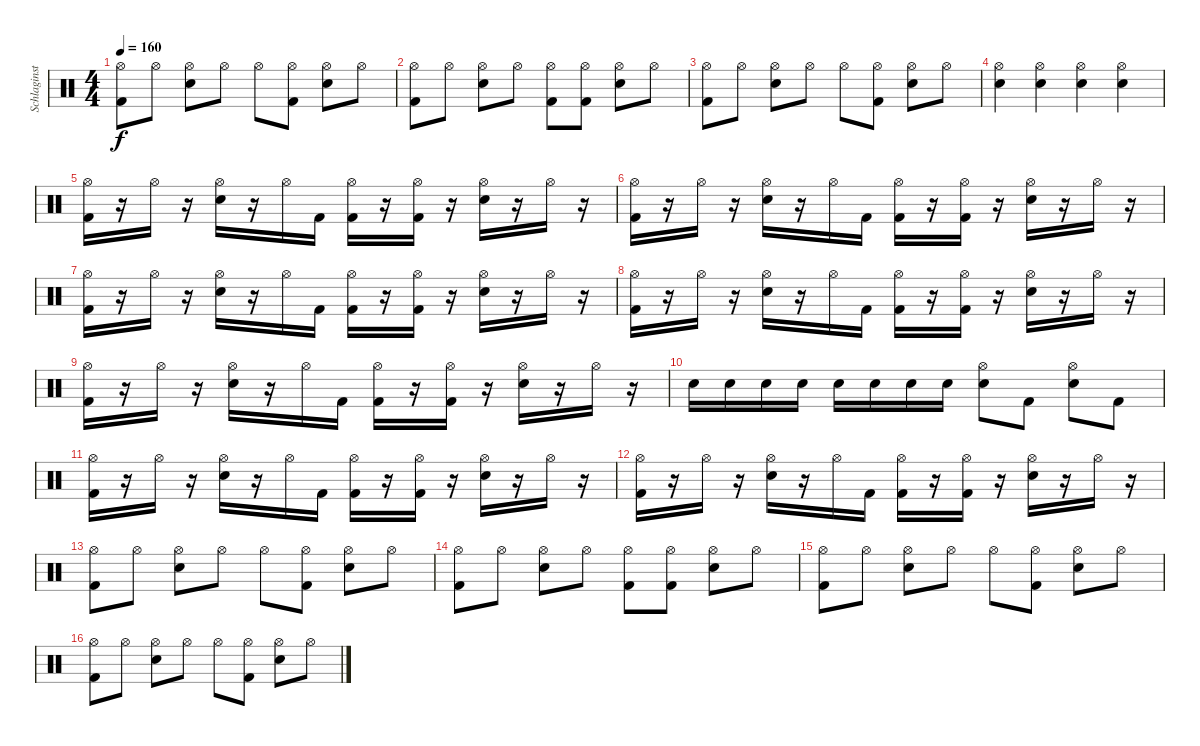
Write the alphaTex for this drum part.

\track ("Schlaginstrumente - Auswahl" "Schlaginst") {instrument percussion}
\staff {score}
\articulation defaults
\ts (4 4)
\tempo 160
\clef neutral
\ks c
("Kick (hit) 2" "Hi-Hat (open)").8{dy f} "Hi-Hat (open)".8 ("Snare (hit) 2" "Hi-Hat (open)").8 "Hi-Hat (open)".8 "Hi-Hat (open)".8 ("Kick (hit) 2" "Hi-Hat (open)").8 ("Snare (hit) 2" "Hi-Hat (open)").8 "Hi-Hat (open)".8 |
("Kick (hit) 2" "Hi-Hat (open)").8 "Hi-Hat (open)".8 ("Snare (hit) 2" "Hi-Hat (open)").8 "Hi-Hat (open)".8 ("Kick (hit) 2" "Hi-Hat (open)").8 ("Kick (hit) 2" "Hi-Hat (open)").8 ("Snare (hit) 2" "Hi-Hat (open)").8 "Hi-Hat (open)".8 |
("Kick (hit) 2" "Hi-Hat (open)").8 "Hi-Hat (open)".8 ("Snare (hit) 2" "Hi-Hat (open)").8 "Hi-Hat (open)".8 "Hi-Hat (open)".8 ("Kick (hit) 2" "Hi-Hat (open)").8 ("Snare (hit) 2" "Hi-Hat (open)").8 "Hi-Hat (open)".8 |
("Hi-Hat (open)" "Snare (hit) 2").4 ("Hi-Hat (open)" "Snare (hit) 2").4 ("Hi-Hat (open)" "Snare (hit) 2").4 ("Hi-Hat (open)" "Snare (hit) 2").4 |
("Hi-Hat (open)" "Kick (hit) 2").16 r.16 "Hi-Hat (open)".16 r.16 ("Hi-Hat (open)" "Snare (hit) 2").16 r.16 "Hi-Hat (open)".16 "Kick (hit) 2".16 ("Hi-Hat (open)" "Kick (hit) 2").16 r.16 ("Hi-Hat (open)" "Kick (hit) 2").16 r.16 ("Hi-Hat (open)" "Snare (hit) 2").16 r.16 "Hi-Hat (open)".16 r.16 |
("Hi-Hat (open)" "Kick (hit) 2").16 r.16 "Hi-Hat (open)".16 r.16 ("Hi-Hat (open)" "Snare (hit) 2").16 r.16 "Hi-Hat (open)".16 "Kick (hit) 2".16 ("Hi-Hat (open)" "Kick (hit) 2").16 r.16 ("Hi-Hat (open)" "Kick (hit) 2").16 r.16 ("Hi-Hat (open)" "Snare (hit) 2").16 r.16 "Hi-Hat (open)".16 r.16 |
("Hi-Hat (open)" "Kick (hit) 2").16 r.16 "Hi-Hat (open)".16 r.16 ("Hi-Hat (open)" "Snare (hit) 2").16 r.16 "Hi-Hat (open)".16 "Kick (hit) 2".16 ("Hi-Hat (open)" "Kick (hit) 2").16 r.16 ("Hi-Hat (open)" "Kick (hit) 2").16 r.16 ("Hi-Hat (open)" "Snare (hit) 2").16 r.16 "Hi-Hat (open)".16 r.16 |
("Hi-Hat (open)" "Kick (hit) 2").16 r.16 "Hi-Hat (open)".16 r.16 ("Hi-Hat (open)" "Snare (hit) 2").16 r.16 "Hi-Hat (open)".16 "Kick (hit) 2".16 ("Hi-Hat (open)" "Kick (hit) 2").16 r.16 ("Hi-Hat (open)" "Kick (hit) 2").16 r.16 ("Hi-Hat (open)" "Snare (hit) 2").16 r.16 "Hi-Hat (open)".16 r.16 |
("Hi-Hat (open)" "Kick (hit) 2").16 r.16 "Hi-Hat (open)".16 r.16 ("Hi-Hat (open)" "Snare (hit) 2").16 r.16 "Hi-Hat (open)".16 "Kick (hit) 2".16 ("Hi-Hat (open)" "Kick (hit) 2").16 r.16 ("Hi-Hat (open)" "Kick (hit) 2").16 r.16 ("Hi-Hat (open)" "Snare (hit) 2").16 r.16 "Hi-Hat (open)".16 r.16 |
"Snare (hit) 2".16 "Snare (hit) 2".16 "Snare (hit) 2".16 "Snare (hit) 2".16 "Snare (hit) 2".16 "Snare (hit) 2".16 "Snare (hit) 2".16 "Snare (hit) 2".16 ("Hi-Hat (open)" "Snare (hit) 2").8 "Kick (hit) 2".8 ("Hi-Hat (open)" "Snare (hit) 2").8 "Kick (hit) 2".8 |
("Hi-Hat (open)" "Kick (hit) 2").16 r.16 "Hi-Hat (open)".16 r.16 ("Hi-Hat (open)" "Snare (hit) 2").16 r.16 "Hi-Hat (open)".16 "Kick (hit) 2".16 ("Hi-Hat (open)" "Kick (hit) 2").16 r.16 ("Hi-Hat (open)" "Kick (hit) 2").16 r.16 ("Hi-Hat (open)" "Snare (hit) 2").16 r.16 "Hi-Hat (open)".16 r.16 |
("Hi-Hat (open)" "Kick (hit) 2").16 r.16 "Hi-Hat (open)".16 r.16 ("Hi-Hat (open)" "Snare (hit) 2").16 r.16 "Hi-Hat (open)".16 "Kick (hit) 2".16 ("Hi-Hat (open)" "Kick (hit) 2").16 r.16 ("Hi-Hat (open)" "Kick (hit) 2").16 r.16 ("Hi-Hat (open)" "Snare (hit) 2").16 r.16 "Hi-Hat (open)".16 r.16 |
("Kick (hit) 2" "Hi-Hat (open)").8 "Hi-Hat (open)".8 ("Snare (hit) 2" "Hi-Hat (open)").8 "Hi-Hat (open)".8 "Hi-Hat (open)".8 ("Kick (hit) 2" "Hi-Hat (open)").8 ("Snare (hit) 2" "Hi-Hat (open)").8 "Hi-Hat (open)".8 |
("Kick (hit) 2" "Hi-Hat (open)").8 "Hi-Hat (open)".8 ("Snare (hit) 2" "Hi-Hat (open)").8 "Hi-Hat (open)".8 ("Kick (hit) 2" "Hi-Hat (open)").8 ("Kick (hit) 2" "Hi-Hat (open)").8 ("Snare (hit) 2" "Hi-Hat (open)").8 "Hi-Hat (open)".8 |
("Kick (hit) 2" "Hi-Hat (open)").8 "Hi-Hat (open)".8 ("Snare (hit) 2" "Hi-Hat (open)").8 "Hi-Hat (open)".8 "Hi-Hat (open)".8 ("Kick (hit) 2" "Hi-Hat (open)").8 ("Snare (hit) 2" "Hi-Hat (open)").8 "Hi-Hat (open)".8 |
("Kick (hit) 2" "Hi-Hat (open)").8 "Hi-Hat (open)".8 ("Snare (hit) 2" "Hi-Hat (open)").8 "Hi-Hat (open)".8 "Hi-Hat (open)".8 ("Kick (hit) 2" "Hi-Hat (open)").8 ("Snare (hit) 2" "Hi-Hat (open)").8 "Hi-Hat (open)".8
